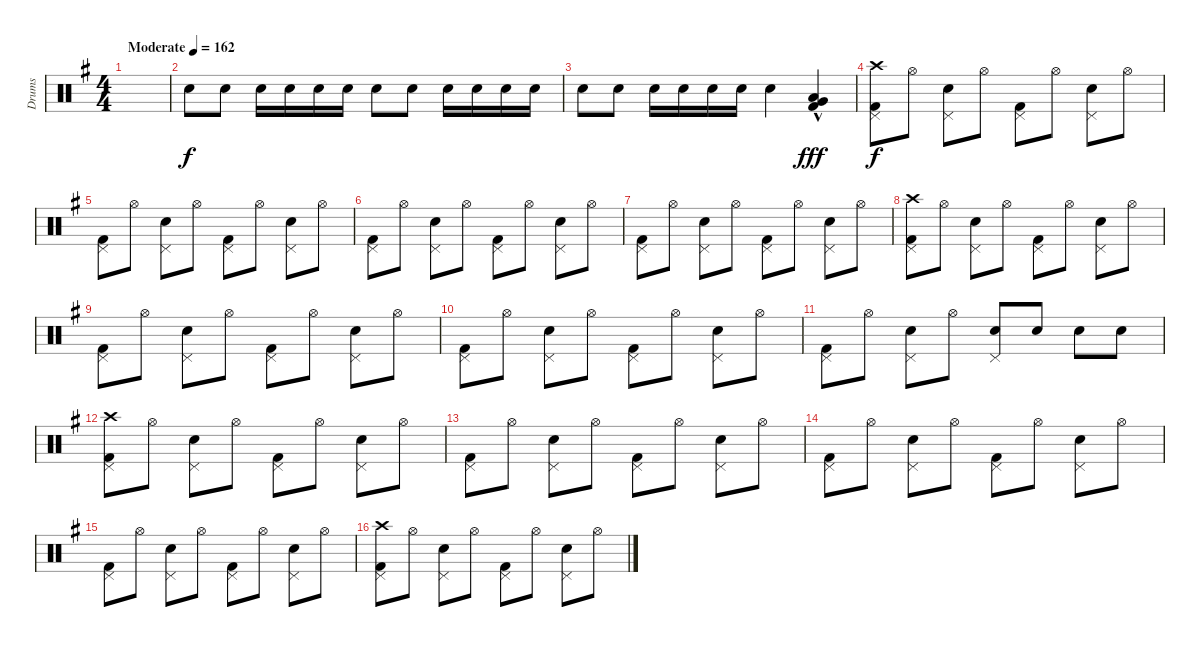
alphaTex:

\track ("Drums" "Drums") {instrument percussion}
\staff {score}
\articulation defaults
\ts (4 4)
\tempo (162 "Moderate")
\clef neutral
\ks g
|
"Electric Snare (hit)".8 "Electric Snare (hit)".8 "Electric Snare (hit)".16 "Electric Snare (hit)".16 "Electric Snare (hit)".16 "Electric Snare (hit)".16 "Electric Snare (hit)".8 "Electric Snare (hit)".8 "Electric Snare (hit)".16 "Electric Snare (hit)".16 "Electric Snare (hit)".16 "Electric Snare (hit)".16 |
"Electric Snare (hit)".8 "Electric Snare (hit)".8 "Electric Snare (hit)".16 "Electric Snare (hit)".16 "Electric Snare (hit)".16 "Electric Snare (hit)".16 "Electric Snare (hit)".4 ("Low Tom (hit)"{hac} "Very Low Tom (hit)"{hac} "Kick (hit) 2"{hac}).4{dy fff} |
("Crash high (hit)" "Pedal Hi-Hat (hit)" "Kick (hit) 2").8{dy f} "Hi-Hat (open)".8 ("Electric Snare (hit)" "Pedal Hi-Hat (hit)").8 "Hi-Hat (open)".8 ("Pedal Hi-Hat (hit)" "Kick (hit) 2").8 "Hi-Hat (open)".8 ("Electric Snare (hit)" "Pedal Hi-Hat (hit)").8 "Hi-Hat (open)".8 |
("Pedal Hi-Hat (hit)" "Kick (hit) 2").8 "Hi-Hat (open)".8 ("Electric Snare (hit)" "Pedal Hi-Hat (hit)").8 "Hi-Hat (open)".8 ("Pedal Hi-Hat (hit)" "Kick (hit) 2").8 "Hi-Hat (open)".8 ("Electric Snare (hit)" "Pedal Hi-Hat (hit)").8 "Hi-Hat (open)".8 |
("Pedal Hi-Hat (hit)" "Kick (hit) 2").8 "Hi-Hat (open)".8 ("Electric Snare (hit)" "Pedal Hi-Hat (hit)").8 "Hi-Hat (open)".8 ("Pedal Hi-Hat (hit)" "Kick (hit) 2").8 "Hi-Hat (open)".8 ("Electric Snare (hit)" "Pedal Hi-Hat (hit)").8 "Hi-Hat (open)".8 |
("Pedal Hi-Hat (hit)" "Kick (hit) 2").8 "Hi-Hat (open)".8 ("Electric Snare (hit)" "Pedal Hi-Hat (hit)").8 "Hi-Hat (open)".8 ("Pedal Hi-Hat (hit)" "Kick (hit) 2").8 "Hi-Hat (open)".8 ("Electric Snare (hit)" "Pedal Hi-Hat (hit)").8 "Hi-Hat (open)".8 |
("Crash high (hit)" "Pedal Hi-Hat (hit)" "Kick (hit) 2").8 "Hi-Hat (open)".8 ("Electric Snare (hit)" "Pedal Hi-Hat (hit)").8 "Hi-Hat (open)".8 ("Pedal Hi-Hat (hit)" "Kick (hit) 2").8 "Hi-Hat (open)".8 ("Electric Snare (hit)" "Pedal Hi-Hat (hit)").8 "Hi-Hat (open)".8 |
("Pedal Hi-Hat (hit)" "Kick (hit) 2").8 "Hi-Hat (open)".8 ("Electric Snare (hit)" "Pedal Hi-Hat (hit)").8 "Hi-Hat (open)".8 ("Pedal Hi-Hat (hit)" "Kick (hit) 2").8 "Hi-Hat (open)".8 ("Electric Snare (hit)" "Pedal Hi-Hat (hit)").8 "Hi-Hat (open)".8 |
("Pedal Hi-Hat (hit)" "Kick (hit) 2").8 "Hi-Hat (open)".8 ("Electric Snare (hit)" "Pedal Hi-Hat (hit)").8 "Hi-Hat (open)".8 ("Pedal Hi-Hat (hit)" "Kick (hit) 2").8 "Hi-Hat (open)".8 ("Electric Snare (hit)" "Pedal Hi-Hat (hit)").8 "Hi-Hat (open)".8 |
("Pedal Hi-Hat (hit)" "Kick (hit) 2").8 "Hi-Hat (open)".8 ("Electric Snare (hit)" "Pedal Hi-Hat (hit)").8 "Hi-Hat (open)".8 ("Electric Snare (hit)" "Pedal Hi-Hat (hit)").8 "Electric Snare (hit)".8 "Electric Snare (hit)".8 "Electric Snare (hit)".8 |
("Crash high (hit)" "Pedal Hi-Hat (hit)" "Kick (hit) 2").8 "Hi-Hat (open)".8 ("Electric Snare (hit)" "Pedal Hi-Hat (hit)").8 "Hi-Hat (open)".8 ("Pedal Hi-Hat (hit)" "Kick (hit) 2").8 "Hi-Hat (open)".8 ("Electric Snare (hit)" "Pedal Hi-Hat (hit)").8 "Hi-Hat (open)".8 |
("Pedal Hi-Hat (hit)" "Kick (hit) 2").8 "Hi-Hat (open)".8 ("Electric Snare (hit)" "Pedal Hi-Hat (hit)").8 "Hi-Hat (open)".8 ("Pedal Hi-Hat (hit)" "Kick (hit) 2").8 "Hi-Hat (open)".8 ("Electric Snare (hit)" "Pedal Hi-Hat (hit)").8 "Hi-Hat (open)".8 |
("Pedal Hi-Hat (hit)" "Kick (hit) 2").8 "Hi-Hat (open)".8 ("Electric Snare (hit)" "Pedal Hi-Hat (hit)").8 "Hi-Hat (open)".8 ("Pedal Hi-Hat (hit)" "Kick (hit) 2").8 "Hi-Hat (open)".8 ("Electric Snare (hit)" "Pedal Hi-Hat (hit)").8 "Hi-Hat (open)".8 |
("Pedal Hi-Hat (hit)" "Kick (hit) 2").8 "Hi-Hat (open)".8 ("Electric Snare (hit)" "Pedal Hi-Hat (hit)").8 "Hi-Hat (open)".8 ("Pedal Hi-Hat (hit)" "Kick (hit) 2").8 "Hi-Hat (open)".8 ("Electric Snare (hit)" "Pedal Hi-Hat (hit)").8 "Hi-Hat (open)".8 |
("Crash high (hit)" "Pedal Hi-Hat (hit)" "Kick (hit) 2").8 "Hi-Hat (open)".8 ("Electric Snare (hit)" "Pedal Hi-Hat (hit)").8 "Hi-Hat (open)".8 ("Pedal Hi-Hat (hit)" "Kick (hit) 2").8 "Hi-Hat (open)".8 ("Electric Snare (hit)" "Pedal Hi-Hat (hit)").8 "Hi-Hat (open)".8
